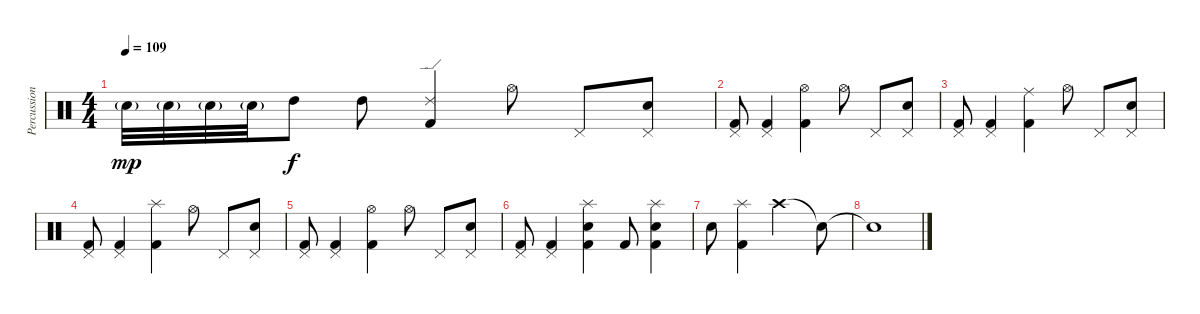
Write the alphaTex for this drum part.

\track ("Percussion" "Percussion") {instrument percussion}
\staff {score}
\articulation defaults
\ts (4 4)
\tempo 109
\clef neutral
\ks c "Snare (hit) 2"{g}.32{dy mp volume 4} "Snare (hit) 2"{g}.32 "Snare (hit) 2"{g}.32 "Snare (hit) 2"{g}.32 "High Tom (hit)".8{dy f volume 11} "High Tom (hit)".8
("Ride (edge) 2" "Kick (hit) 2").4 "Hi-Hat (open)".8 "Pedal Hi-Hat (hit)".8 ("Pedal Hi-Hat (hit)" "Snare (hit) 2").8 |
("Pedal Hi-Hat (hit)" "Kick (hit) 2").8 ("Pedal Hi-Hat (hit)" "Kick (hit) 2").4 ("Hi-Hat (open)" "Kick (hit) 2").4 "Hi-Hat (open)".8 "Pedal Hi-Hat (hit)".8 ("Pedal Hi-Hat (hit)" "Snare (hit) 2").8 |
("Pedal Hi-Hat (hit)" "Kick (hit) 2").8 ("Pedal Hi-Hat (hit)" "Kick (hit) 2").4 ("Ride (middle)" "Kick (hit) 2").4 "Hi-Hat (open)".8 "Pedal Hi-Hat (hit)".8 ("Pedal Hi-Hat (hit)" "Snare (hit) 2").8 |
("Pedal Hi-Hat (hit)" "Kick (hit) 2").8 ("Pedal Hi-Hat (hit)" "Kick (hit) 2").4 ("Splash (hit)" "Kick (hit) 2").4 "Hi-Hat (open)".8 "Pedal Hi-Hat (hit)".8 ("Pedal Hi-Hat (hit)" "Snare (hit) 2").8 |
("Pedal Hi-Hat (hit)" "Kick (hit) 2").8 ("Pedal Hi-Hat (hit)" "Kick (hit) 2").4 ("Hi-Hat (open)" "Kick (hit) 2").4 "Hi-Hat (open)".8 "Pedal Hi-Hat (hit)".8 ("Pedal Hi-Hat (hit)" "Snare (hit) 2").8 |
("Pedal Hi-Hat (hit)" "Kick (hit) 2").8 ("Pedal Hi-Hat (hit)" "Kick (hit) 2").4 ("Splash (hit)" "Snare (hit) 2" "Kick (hit) 2").4 "Kick (hit) 2".8 ("Splash (hit)" "Snare (hit) 2" "Kick (hit) 2").4 |
"Snare (hit) 2".8 ("Splash (hit)" "Kick (hit) 2").4 "Crash high (hit)".2 "Snare (hit)"{t}.8 |
"Snare (hit)"{t}.1
